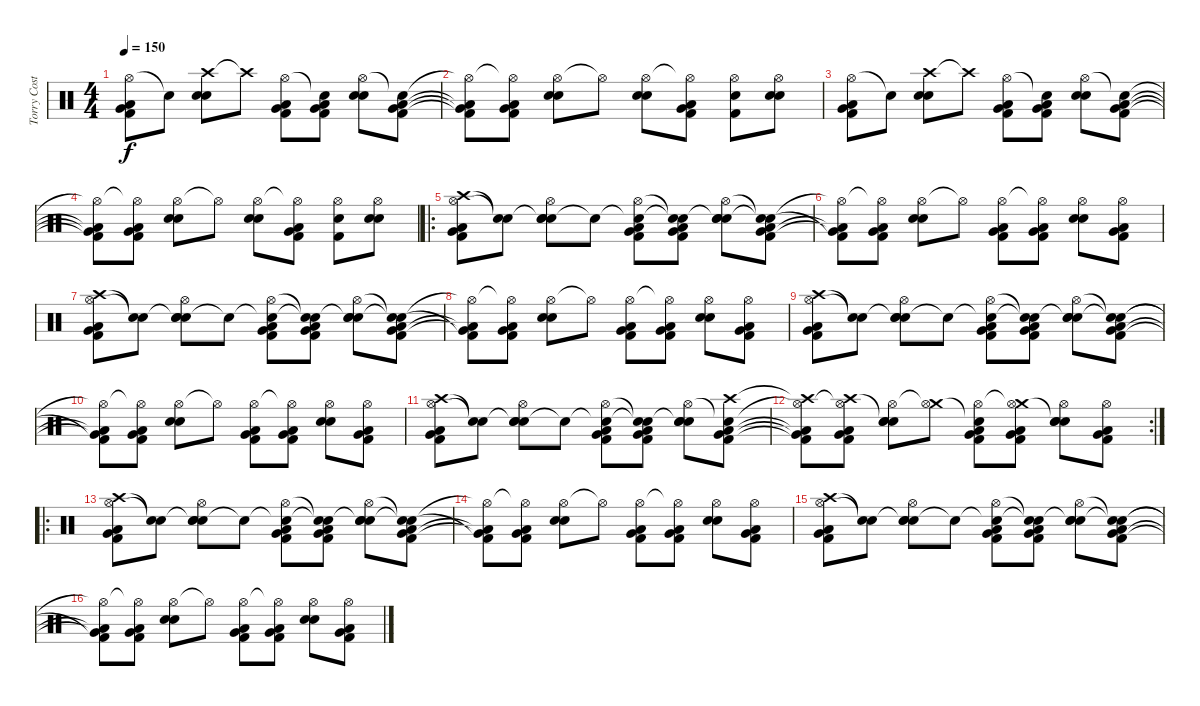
\track ("Torry Costellano" "Torry Cost") {instrument percussion bank 127}
\staff {score}
\articulation defaults
\ts (4 4)
\tempo 150
\clef neutral
\ks c
("Hi-Hat (open)" "Kick (hit) 2" "Very Low Tom (hit)" "Low Tom (hit)").8{dy f} "Snare (hit)"{t}.8 ("Crash high (hit)" "Electric Snare (hit)" "Snare (hit) 2").8 "Crash high (hit)"{t}.8 ("Hi-Hat (open)" "Kick (hit) 2" "Very Low Tom (hit)" "Low Tom (hit)").8 ("Snare (hit)"{t} "Kick (hit) 2" "Very Low Tom (hit)" "Low Tom (hit)").8 ("Hi-Hat (open)" "Electric Snare (hit)" "Snare (hit) 2").8 ("Snare (hit)"{t} "Kick (hit) 2" "Very Low Tom (hit)" "Low Tom (hit)").8 |
("Hi-Hat (open)"{t} "Kick (hit) 2"{t} "Very Low Tom (hit)"{t} "Low Tom (hit)"{t}).8 ("Hi-Hat (open)"{t} "Low Tom (hit)" "Very Low Tom (hit)" "Kick (hit) 2").8 ("Hi-Hat (open)" "Electric Snare (hit)" "Snare (hit) 2").8 "Hi-Hat (open)"{t}.8 ("Hi-Hat (open)" "Snare (hit) 2" "Electric Snare (hit)").8 ("Hi-Hat (open)"{t} "Low Tom (hit)" "Very Low Tom (hit)" "Kick (hit) 2").8 ("Hi-Hat (open)" "Snare (hit) 2" "Kick (hit) 2").8 ("Hi-Hat (open)" "Snare (hit) 2" "Electric Snare (hit)").8 |
("Hi-Hat (open)" "Kick (hit) 2" "Very Low Tom (hit)" "Low Tom (hit)").8 "Snare (hit)"{t}.8 ("Crash high (hit)" "Electric Snare (hit)" "Snare (hit) 2").8 "Crash high (hit)"{t}.8 ("Hi-Hat (open)" "Kick (hit) 2" "Very Low Tom (hit)" "Low Tom (hit)").8 ("Snare (hit)"{t} "Kick (hit) 2" "Very Low Tom (hit)" "Low Tom (hit)").8 ("Hi-Hat (open)" "Electric Snare (hit)" "Snare (hit) 2").8 ("Snare (hit)"{t} "Kick (hit) 2" "Very Low Tom (hit)" "Low Tom (hit)").8 |
("Hi-Hat (open)"{t} "Kick (hit) 2"{t} "Very Low Tom (hit)"{t} "Low Tom (hit)"{t}).8 ("Hi-Hat (open)"{t} "Low Tom (hit)" "Very Low Tom (hit)" "Kick (hit) 2").8 ("Hi-Hat (open)" "Electric Snare (hit)" "Snare (hit) 2").8 "Hi-Hat (open)"{t}.8 ("Hi-Hat (open)" "Snare (hit) 2" "Electric Snare (hit)").8 ("Hi-Hat (open)"{t} "Low Tom (hit)" "Very Low Tom (hit)" "Kick (hit) 2").8 ("Hi-Hat (open)" "Snare (hit) 2" "Kick (hit) 2").8 ("Hi-Hat (open)" "Snare (hit) 2" "Electric Snare (hit)").8 |
\ro
("Crash high (hit)" "Hi-Hat (open)" "Kick (hit) 2" "Very Low Tom (hit)" "Low Tom (hit)").8 ("Snare (hit)"{t} "Snare (hit)"{t}).8 ("Snare (hit)"{t} "Hi-Hat (open)" "Electric Snare (hit)" "Snare (hit) 2").8 "Snare (hit)"{t}.8 ("Snare (hit)"{t} "Hi-Hat (open)" "Kick (hit) 2" "Very Low Tom (hit)" "Low Tom (hit)").8 ("Snare (hit)"{t} "Snare (hit)"{t} "Kick (hit) 2" "Very Low Tom (hit)" "Low Tom (hit)").8 ("Snare (hit)"{t} "Hi-Hat (open)" "Electric Snare (hit)" "Snare (hit) 2").8 ("Snare (hit)"{t} "Snare (hit)"{t} "Kick (hit) 2" "Very Low Tom (hit)" "Low Tom (hit)").8 |
("Hi-Hat (open)"{t} "Kick (hit) 2"{t} "Very Low Tom (hit)"{t} "Low Tom (hit)"{t}).8 ("Hi-Hat (open)"{t} "Low Tom (hit)" "Very Low Tom (hit)" "Kick (hit) 2").8 ("Hi-Hat (open)" "Electric Snare (hit)" "Snare (hit) 2").8 "Hi-Hat (open)"{t}.8 ("Hi-Hat (open)" "Low Tom (hit)" "Very Low Tom (hit)" "Kick (hit) 2").8 ("Hi-Hat (open)"{t} "Low Tom (hit)" "Very Low Tom (hit)" "Kick (hit) 2").8 ("Hi-Hat (open)" "Snare (hit) 2" "Electric Snare (hit)").8 ("Hi-Hat (open)" "Low Tom (hit)" "Very Low Tom (hit)" "Kick (hit) 2").8 |
("Crash high (hit)" "Hi-Hat (open)" "Kick (hit) 2" "Very Low Tom (hit)" "Low Tom (hit)").8 ("Snare (hit)"{t} "Snare (hit)"{t}).8 ("Snare (hit)"{t} "Hi-Hat (open)" "Electric Snare (hit)" "Snare (hit) 2").8 "Snare (hit)"{t}.8 ("Snare (hit)"{t} "Hi-Hat (open)" "Kick (hit) 2" "Very Low Tom (hit)" "Low Tom (hit)").8 ("Snare (hit)"{t} "Snare (hit)"{t} "Kick (hit) 2" "Very Low Tom (hit)" "Low Tom (hit)").8 ("Snare (hit)"{t} "Hi-Hat (open)" "Electric Snare (hit)" "Snare (hit) 2").8 ("Snare (hit)"{t} "Snare (hit)"{t} "Kick (hit) 2" "Very Low Tom (hit)" "Low Tom (hit)").8 |
("Hi-Hat (open)"{t} "Kick (hit) 2"{t} "Very Low Tom (hit)"{t} "Low Tom (hit)"{t}).8 ("Hi-Hat (open)"{t} "Low Tom (hit)" "Very Low Tom (hit)" "Kick (hit) 2").8 ("Hi-Hat (open)" "Electric Snare (hit)" "Snare (hit) 2").8 "Hi-Hat (open)"{t}.8 ("Hi-Hat (open)" "Low Tom (hit)" "Very Low Tom (hit)" "Kick (hit) 2").8 ("Hi-Hat (open)"{t} "Low Tom (hit)" "Very Low Tom (hit)" "Kick (hit) 2").8 ("Hi-Hat (open)" "Snare (hit) 2" "Electric Snare (hit)").8 ("Hi-Hat (open)" "Low Tom (hit)" "Very Low Tom (hit)" "Kick (hit) 2").8 |
("Crash high (hit)" "Hi-Hat (open)" "Kick (hit) 2" "Very Low Tom (hit)" "Low Tom (hit)").8 ("Snare (hit)"{t} "Snare (hit)"{t}).8 ("Snare (hit)"{t} "Hi-Hat (open)" "Electric Snare (hit)" "Snare (hit) 2").8 "Snare (hit)"{t}.8 ("Snare (hit)"{t} "Hi-Hat (open)" "Kick (hit) 2" "Very Low Tom (hit)" "Low Tom (hit)").8 ("Snare (hit)"{t} "Snare (hit)"{t} "Kick (hit) 2" "Very Low Tom (hit)" "Low Tom (hit)").8 ("Snare (hit)"{t} "Hi-Hat (open)" "Electric Snare (hit)" "Snare (hit) 2").8 ("Snare (hit)"{t} "Snare (hit)"{t} "Kick (hit) 2" "Very Low Tom (hit)" "Low Tom (hit)").8 |
("Hi-Hat (open)"{t} "Kick (hit) 2"{t} "Very Low Tom (hit)"{t} "Low Tom (hit)"{t}).8 ("Hi-Hat (open)"{t} "Low Tom (hit)" "Very Low Tom (hit)" "Kick (hit) 2").8 ("Hi-Hat (open)" "Electric Snare (hit)" "Snare (hit) 2").8 "Hi-Hat (open)"{t}.8 ("Hi-Hat (open)" "Low Tom (hit)" "Very Low Tom (hit)" "Kick (hit) 2").8 ("Hi-Hat (open)"{t} "Low Tom (hit)" "Very Low Tom (hit)" "Kick (hit) 2").8 ("Hi-Hat (open)" "Snare (hit) 2" "Electric Snare (hit)").8 ("Hi-Hat (open)" "Low Tom (hit)" "Very Low Tom (hit)" "Kick (hit) 2").8 |
("Crash high (hit)" "Hi-Hat (open)" "Kick (hit) 2" "Very Low Tom (hit)" "Low Tom (hit)").8 ("Snare (hit)"{t} "Snare (hit)"{t}).8 ("Snare (hit)"{t} "Hi-Hat (open)" "Electric Snare (hit)" "Snare (hit) 2").8 "Snare (hit)"{t}.8 ("Snare (hit)"{t} "Hi-Hat (open)" "Kick (hit) 2" "Very Low Tom (hit)" "Low Tom (hit)").8 ("Snare (hit)"{t} "Snare (hit)"{t} "Kick (hit) 2" "Very Low Tom (hit)" "Low Tom (hit)").8 ("Snare (hit)"{t} "Hi-Hat (open)" "Electric Snare (hit)" "Snare (hit) 2").8 ("Crash high (hit)" "Snare (hit)"{t} "Kick (hit) 2" "Very Low Tom (hit)" "Low Tom (hit)").8 |
\rc 2
("Crash high (hit)"{t} "Hi-Hat (open)"{t} "Kick (hit) 2"{t} "Very Low Tom (hit)"{t} "Low Tom (hit)"{t}).8 ("Crash high (hit)" "Hi-Hat (open)"{t} "Low Tom (hit)" "Very Low Tom (hit)" "Kick (hit) 2").8 ("Snare (hit)"{t} "Hi-Hat (open)" "Electric Snare (hit)" "Snare (hit) 2").8 ("Crash medium (hit)" "Hi-Hat (open)"{t}).8 ("Snare (hit)"{t} "Hi-Hat (open)" "Low Tom (hit)" "Very Low Tom (hit)" "Kick (hit) 2").8 ("Crash medium (hit)" "Hi-Hat (open)"{t} "Low Tom (hit)" "Very Low Tom (hit)" "Kick (hit) 2").8 ("Snare (hit)"{t} "Hi-Hat (open)" "Snare (hit) 2" "Electric Snare (hit)").8 ("Hi-Hat (open)" "Low Tom (hit)" "Very Low Tom (hit)" "Kick (hit) 2").8 |
\ro
("Crash high (hit)" "Hi-Hat (open)" "Kick (hit) 2" "Very Low Tom (hit)" "Low Tom (hit)").8 ("Snare (hit)"{t} "Snare (hit)"{t}).8 ("Snare (hit)"{t} "Hi-Hat (open)" "Electric Snare (hit)" "Snare (hit) 2").8 "Snare (hit)"{t}.8 ("Snare (hit)"{t} "Hi-Hat (open)" "Kick (hit) 2" "Very Low Tom (hit)" "Low Tom (hit)").8 ("Snare (hit)"{t} "Snare (hit)"{t} "Kick (hit) 2" "Very Low Tom (hit)" "Low Tom (hit)").8 ("Snare (hit)"{t} "Hi-Hat (open)" "Electric Snare (hit)" "Snare (hit) 2").8 ("Snare (hit)"{t} "Snare (hit)"{t} "Kick (hit) 2" "Very Low Tom (hit)" "Low Tom (hit)").8 |
("Hi-Hat (open)"{t} "Kick (hit) 2"{t} "Very Low Tom (hit)"{t} "Low Tom (hit)"{t}).8 ("Hi-Hat (open)"{t} "Low Tom (hit)" "Very Low Tom (hit)" "Kick (hit) 2").8 ("Hi-Hat (open)" "Electric Snare (hit)" "Snare (hit) 2").8 "Hi-Hat (open)"{t}.8 ("Hi-Hat (open)" "Low Tom (hit)" "Very Low Tom (hit)" "Kick (hit) 2").8 ("Hi-Hat (open)"{t} "Low Tom (hit)" "Very Low Tom (hit)" "Kick (hit) 2").8 ("Hi-Hat (open)" "Snare (hit) 2" "Electric Snare (hit)").8 ("Hi-Hat (open)" "Low Tom (hit)" "Very Low Tom (hit)" "Kick (hit) 2").8 |
("Crash high (hit)" "Hi-Hat (open)" "Kick (hit) 2" "Very Low Tom (hit)" "Low Tom (hit)").8 ("Snare (hit)"{t} "Snare (hit)"{t}).8 ("Snare (hit)"{t} "Hi-Hat (open)" "Electric Snare (hit)" "Snare (hit) 2").8 "Snare (hit)"{t}.8 ("Snare (hit)"{t} "Hi-Hat (open)" "Kick (hit) 2" "Very Low Tom (hit)" "Low Tom (hit)").8 ("Snare (hit)"{t} "Snare (hit)"{t} "Kick (hit) 2" "Very Low Tom (hit)" "Low Tom (hit)").8 ("Snare (hit)"{t} "Hi-Hat (open)" "Electric Snare (hit)" "Snare (hit) 2").8 ("Snare (hit)"{t} "Snare (hit)"{t} "Kick (hit) 2" "Very Low Tom (hit)" "Low Tom (hit)").8 |
("Hi-Hat (open)"{t} "Kick (hit) 2"{t} "Very Low Tom (hit)"{t} "Low Tom (hit)"{t}).8 ("Hi-Hat (open)"{t} "Low Tom (hit)" "Very Low Tom (hit)" "Kick (hit) 2").8 ("Hi-Hat (open)" "Electric Snare (hit)" "Snare (hit) 2").8 "Hi-Hat (open)"{t}.8 ("Hi-Hat (open)" "Low Tom (hit)" "Very Low Tom (hit)" "Kick (hit) 2").8 ("Hi-Hat (open)"{t} "Low Tom (hit)" "Very Low Tom (hit)" "Kick (hit) 2").8 ("Hi-Hat (open)" "Snare (hit) 2" "Electric Snare (hit)").8 ("Hi-Hat (open)" "Low Tom (hit)" "Very Low Tom (hit)" "Kick (hit) 2").8
